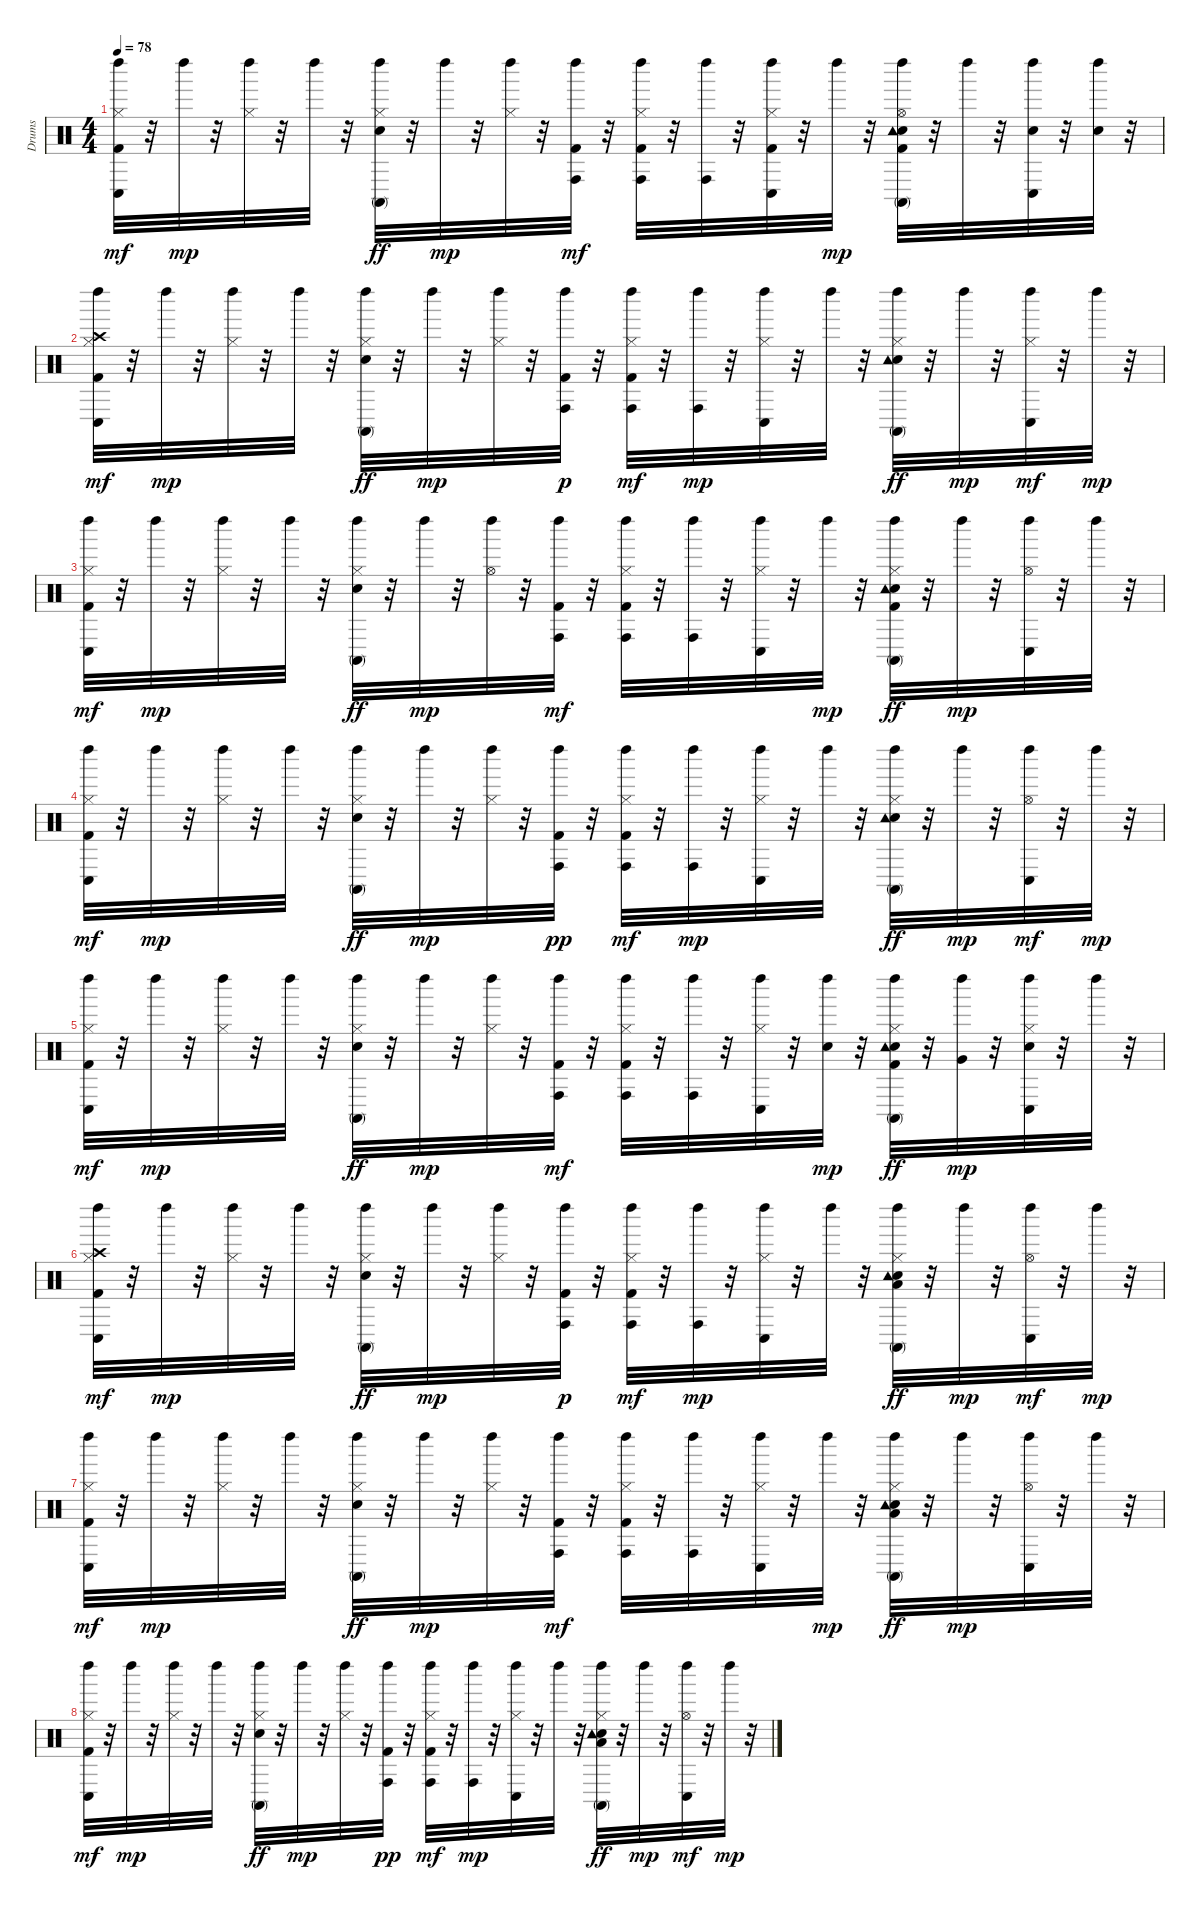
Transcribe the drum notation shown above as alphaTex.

\track ("Drums               " "Drums     ") {instrument percussion}
\staff {score}
\articulation defaults
\ts (4 4)
\tempo 78
\clef neutral
\ks c
("Kick (hit) 2" "Hi-Hat (closed)" "Left Maraca (hit)" "Conga low (hit)").32{dy mf} r.32 "Left Maraca (hit)".32{dy mp} r.32 ("Hi-Hat (closed)" "Left Maraca (hit)").32 r.32 "Left Maraca (hit)".32 r.32 ("Snare (hit) 2" "Hi-Hat (closed)" "Left Maraca (hit)" "Conga high (mute)").32{dy ff} r.32 "Left Maraca (hit)".32{dy mp} r.32 ("Hi-Hat (closed)" "Left Maraca (hit)").32 r.32 ("Kick (hit) 2" "Left Maraca (hit)" "Conga high (hit)").32{dy mf} r.32 ("Kick (hit) 2" "Hi-Hat (closed)" "Left Maraca (hit)" "Conga high (hit)").32 r.32 ("Left Maraca (hit)" "Conga high (hit)").32 r.32 ("Kick (hit) 2" "Hi-Hat (closed)" "Left Maraca (hit)" "Conga low (hit)").32 r.32 "Left Maraca (hit)".32{dy mp} r.32 ("Kick (hit) 2" "Snare (hit) 2" "Hi-Hat (open)" "Left Maraca (hit)" "Conga high (mute)" "Tambourine (hit)").32 r.32 "Left Maraca (hit)".32 r.32 ("Snare (hit) 2" "Left Maraca (hit)" "Conga low (hit)").32 r.32 ("Snare (hit) 2" "Left Maraca (hit)").32 r.32 |
("Kick (hit) 2" "Hi-Hat (closed)" "Left Maraca (hit)" "Crash high (hit)" "Conga low (hit)").32{dy mf} r.32 "Left Maraca (hit)".32{dy mp} r.32 ("Hi-Hat (closed)" "Left Maraca (hit)").32 r.32 "Left Maraca (hit)".32 r.32 ("Snare (hit) 2" "Hi-Hat (closed)" "Left Maraca (hit)" "Conga high (mute)").32{dy ff} r.32 "Left Maraca (hit)".32{dy mp} r.32 ("Hi-Hat (closed)" "Left Maraca (hit)").32 r.32 ("Kick (hit) 2" "Left Maraca (hit)" "Conga high (hit)").32{dy p} r.32 ("Kick (hit) 2" "Hi-Hat (closed)" "Left Maraca (hit)" "Conga high (hit)").32{dy mf} r.32 ("Left Maraca (hit)" "Conga high (hit)").32{dy mp} r.32 ("Hi-Hat (closed)" "Left Maraca (hit)" "Conga low (hit)").32 r.32 "Left Maraca (hit)".32 r.32 ("Snare (hit) 2" "Hi-Hat (closed)" "Left Maraca (hit)" "Conga high (mute)" "Tambourine (hit)").32{dy ff} r.32 "Left Maraca (hit)".32{dy mp} r.32 ("Hi-Hat (closed)" "Left Maraca (hit)" "Conga low (hit)").32{dy mf} r.32 "Left Maraca (hit)".32{dy mp} r.32 |
("Kick (hit) 2" "Hi-Hat (closed)" "Left Maraca (hit)" "Conga low (hit)").32{dy mf} r.32 "Left Maraca (hit)".32{dy mp} r.32 ("Hi-Hat (closed)" "Left Maraca (hit)").32 r.32 "Left Maraca (hit)".32 r.32 ("Snare (hit) 2" "Hi-Hat (closed)" "Left Maraca (hit)" "Conga high (mute)").32{dy ff} r.32 "Left Maraca (hit)".32{dy mp} r.32 ("Hi-Hat (open)" "Left Maraca (hit)").32 r.32 ("Kick (hit) 2" "Left Maraca (hit)" "Conga high (hit)").32{dy mf} r.32 ("Kick (hit) 2" "Hi-Hat (closed)" "Left Maraca (hit)" "Conga high (hit)").32 r.32 ("Left Maraca (hit)" "Conga high (hit)").32 r.32 ("Hi-Hat (closed)" "Left Maraca (hit)" "Conga low (hit)").32 r.32 "Left Maraca (hit)".32{dy mp} r.32 ("Kick (hit) 2" "Snare (hit) 2" "Hi-Hat (closed)" "Left Maraca (hit)" "Conga high (mute)" "Tambourine (hit)").32{dy ff} r.32 "Left Maraca (hit)".32{dy mp} r.32 ("Hi-Hat (open)" "Left Maraca (hit)" "Conga low (hit)").32 r.32 "Left Maraca (hit)".32 r.32 |
("Kick (hit) 2" "Hi-Hat (closed)" "Left Maraca (hit)" "Conga low (hit)").32{dy mf} r.32 "Left Maraca (hit)".32{dy mp} r.32 ("Hi-Hat (closed)" "Left Maraca (hit)").32 r.32 "Left Maraca (hit)".32 r.32 ("Snare (hit) 2" "Hi-Hat (closed)" "Left Maraca (hit)" "Conga high (mute)").32{dy ff} r.32 "Left Maraca (hit)".32{dy mp} r.32 ("Hi-Hat (closed)" "Left Maraca (hit)").32 r.32 ("Kick (hit) 2" "Left Maraca (hit)" "Conga high (hit)").32{dy pp} r.32 ("Kick (hit) 2" "Hi-Hat (closed)" "Left Maraca (hit)" "Conga high (hit)").32{dy mf} r.32 ("Left Maraca (hit)" "Conga high (hit)").32{dy mp} r.32 ("Hi-Hat (closed)" "Left Maraca (hit)" "Conga low (hit)").32 r.32 "Left Maraca (hit)".32 r.32 ("Snare (hit) 2" "Hi-Hat (closed)" "Left Maraca (hit)" "Conga high (mute)" "Tambourine (hit)").32{dy ff} r.32 "Left Maraca (hit)".32{dy mp} r.32 ("Hi-Hat (open)" "Left Maraca (hit)" "Conga low (hit)").32{dy mf} r.32 "Left Maraca (hit)".32{dy mp} r.32 |
("Kick (hit) 2" "Hi-Hat (closed)" "Left Maraca (hit)" "Conga low (hit)").32{dy mf} r.32 "Left Maraca (hit)".32{dy mp} r.32 ("Hi-Hat (closed)" "Left Maraca (hit)").32 r.32 "Left Maraca (hit)".32 r.32 ("Snare (hit) 2" "Hi-Hat (closed)" "Left Maraca (hit)" "Conga high (mute)").32{dy ff} r.32 "Left Maraca (hit)".32{dy mp} r.32 ("Hi-Hat (closed)" "Left Maraca (hit)").32 r.32 ("Kick (hit) 2" "Left Maraca (hit)" "Conga high (hit)").32{dy mf} r.32 ("Kick (hit) 2" "Hi-Hat (closed)" "Left Maraca (hit)" "Conga high (hit)").32 r.32 ("Left Maraca (hit)" "Conga high (hit)").32 r.32 ("Hi-Hat (closed)" "Left Maraca (hit)" "Conga low (hit)").32 r.32 ("Snare (hit) 2" "Left Maraca (hit)").32{dy mp} r.32 ("Kick (hit) 2" "Snare (hit) 2" "Hi-Hat (closed)" "Left Maraca (hit)" "Conga high (mute)" "Tambourine (hit)").32{dy ff} r.32 ("Left Maraca (hit)" "Very Low Tom (hit)").32{dy mp} r.32 ("Snare (hit) 2" "Hi-Hat (closed)" "Left Maraca (hit)" "Conga low (hit)").32 r.32 "Left Maraca (hit)".32 r.32 |
("Kick (hit) 2" "Hi-Hat (closed)" "Left Maraca (hit)" "Crash high (hit)" "Conga low (hit)").32{dy mf} r.32 "Left Maraca (hit)".32{dy mp} r.32 ("Hi-Hat (closed)" "Left Maraca (hit)").32 r.32 "Left Maraca (hit)".32 r.32 ("Snare (hit) 2" "Hi-Hat (closed)" "Left Maraca (hit)" "Conga high (mute)").32{dy ff} r.32 "Left Maraca (hit)".32{dy mp} r.32 ("Hi-Hat (closed)" "Left Maraca (hit)").32 r.32 ("Kick (hit) 2" "Left Maraca (hit)" "Conga high (hit)").32{dy p} r.32 ("Kick (hit) 2" "Hi-Hat (closed)" "Left Maraca (hit)" "Conga high (hit)").32{dy mf} r.32 ("Left Maraca (hit)" "Conga high (hit)").32{dy mp} r.32 ("Hi-Hat (closed)" "Left Maraca (hit)" "Conga low (hit)").32 r.32 "Left Maraca (hit)".32 r.32 ("Snare (hit) 2" "Hi-Hat (closed)" "Left Maraca (hit)" "Low Floor Tom (hit)" "Conga high (mute)" "Tambourine (hit)").32{dy ff} r.32 "Left Maraca (hit)".32{dy mp} r.32 ("Hi-Hat (open)" "Left Maraca (hit)" "Conga low (hit)").32{dy mf} r.32 "Left Maraca (hit)".32{dy mp} r.32 |
("Kick (hit) 2" "Hi-Hat (closed)" "Left Maraca (hit)" "Conga low (hit)").32{dy mf} r.32 "Left Maraca (hit)".32{dy mp} r.32 ("Hi-Hat (closed)" "Left Maraca (hit)").32 r.32 "Left Maraca (hit)".32 r.32 ("Snare (hit) 2" "Hi-Hat (closed)" "Left Maraca (hit)" "Conga high (mute)").32{dy ff} r.32 "Left Maraca (hit)".32{dy mp} r.32 ("Hi-Hat (closed)" "Left Maraca (hit)").32 r.32 ("Kick (hit) 2" "Left Maraca (hit)" "Conga high (hit)").32{dy mf} r.32 ("Kick (hit) 2" "Hi-Hat (closed)" "Left Maraca (hit)" "Conga high (hit)").32 r.32 ("Left Maraca (hit)" "Conga high (hit)").32 r.32 ("Hi-Hat (closed)" "Left Maraca (hit)" "Conga low (hit)").32 r.32 "Left Maraca (hit)".32{dy mp} r.32 ("Snare (hit) 2" "Hi-Hat (closed)" "Left Maraca (hit)" "Low Floor Tom (hit)" "Conga high (mute)" "Tambourine (hit)").32{dy ff} r.32 "Left Maraca (hit)".32{dy mp} r.32 ("Hi-Hat (open)" "Left Maraca (hit)" "Conga low (hit)").32 r.32 "Left Maraca (hit)".32 r.32 |
("Kick (hit) 2" "Hi-Hat (closed)" "Left Maraca (hit)" "Conga low (hit)").32{dy mf} r.32 "Left Maraca (hit)".32{dy mp} r.32 ("Hi-Hat (closed)" "Left Maraca (hit)").32 r.32 "Left Maraca (hit)".32 r.32 ("Snare (hit) 2" "Hi-Hat (closed)" "Left Maraca (hit)" "Conga high (mute)").32{dy ff} r.32 "Left Maraca (hit)".32{dy mp} r.32 ("Hi-Hat (closed)" "Left Maraca (hit)").32 r.32 ("Kick (hit) 2" "Left Maraca (hit)" "Conga high (hit)").32{dy pp} r.32 ("Kick (hit) 2" "Hi-Hat (closed)" "Left Maraca (hit)" "Conga high (hit)").32{dy mf} r.32 ("Left Maraca (hit)" "Conga high (hit)").32{dy mp} r.32 ("Hi-Hat (closed)" "Left Maraca (hit)" "Conga low (hit)").32 r.32 "Left Maraca (hit)".32 r.32 ("Snare (hit) 2" "Hi-Hat (closed)" "Left Maraca (hit)" "Conga high (mute)" "Low Floor Tom (hit)" "Tambourine (hit)").32{dy ff} r.32 "Left Maraca (hit)".32{dy mp} r.32 ("Hi-Hat (open)" "Left Maraca (hit)" "Conga low (hit)").32{dy mf} r.32 "Left Maraca (hit)".32{dy mp} r.32
